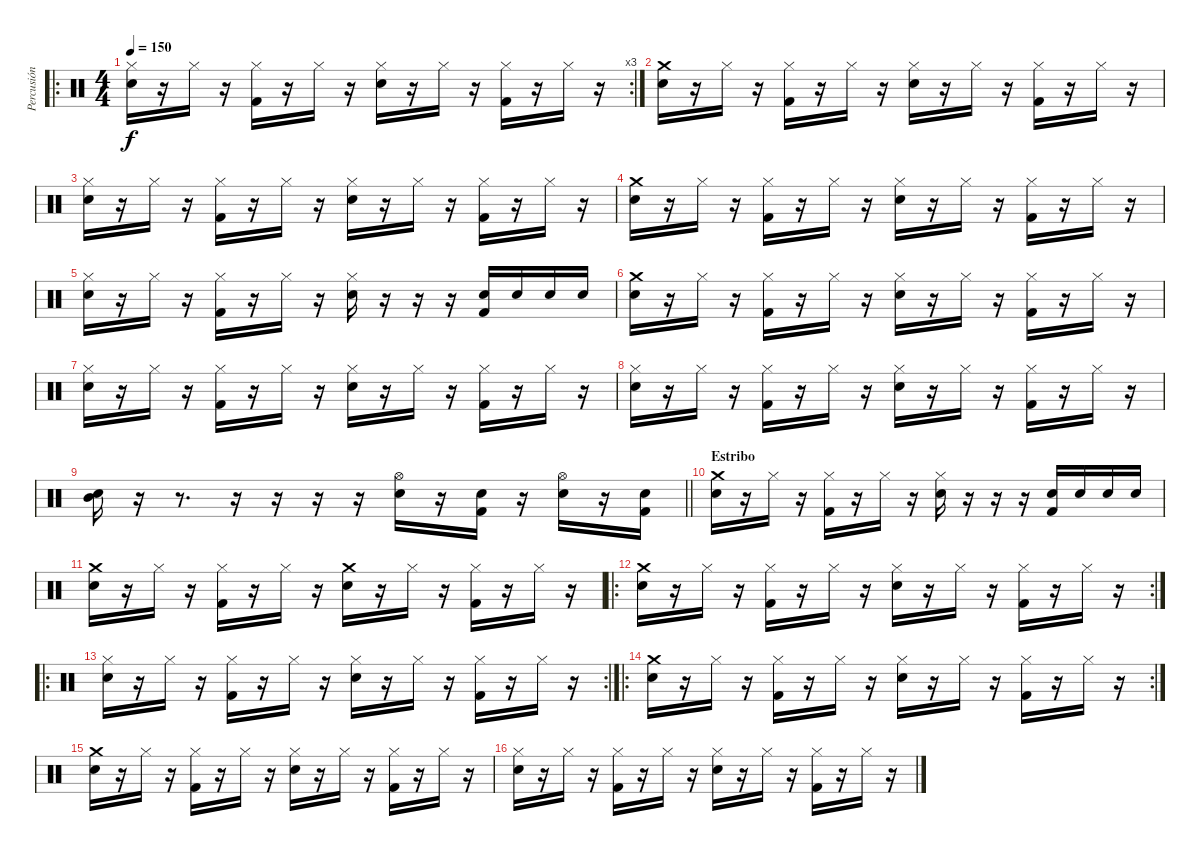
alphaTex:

\track ("Percusión" "Percusión") {instrument percussion}
\staff {score}
\articulation defaults
\ro
\rc 3
\ts (4 4)
\tempo 150
\clef neutral
\ks c
("Hi-Hat (closed)" "Snare (hit) 2").16{dy f} r.16 "Hi-Hat (closed)".16 r.16 ("Hi-Hat (closed)" "Kick (hit) 2").16 r.16 "Hi-Hat (closed)".16 r.16 ("Hi-Hat (closed)" "Snare (hit) 2").16 r.16 "Hi-Hat (closed)".16 r.16 ("Hi-Hat (closed)" "Kick (hit) 2").16 r.16 "Hi-Hat (closed)".16 r.16 |
("Crash medium (hit)" "Snare (hit) 2").16 r.16 "Hi-Hat (closed)".16 r.16 ("Hi-Hat (closed)" "Kick (hit) 2").16 r.16 "Hi-Hat (closed)".16 r.16 ("Hi-Hat (closed)" "Snare (hit) 2").16 r.16 "Hi-Hat (closed)".16 r.16 ("Hi-Hat (closed)" "Kick (hit) 2").16 r.16 "Hi-Hat (closed)".16 r.16 |
("Hi-Hat (closed)" "Snare (hit) 2").16 r.16 "Hi-Hat (closed)".16 r.16 ("Hi-Hat (closed)" "Kick (hit) 2").16 r.16 "Hi-Hat (closed)".16 r.16 ("Hi-Hat (closed)" "Snare (hit) 2").16 r.16 "Hi-Hat (closed)".16 r.16 ("Hi-Hat (closed)" "Kick (hit) 2").16 r.16 "Hi-Hat (closed)".16 r.16 |
("Crash medium (hit)" "Snare (hit) 2").16 r.16 "Hi-Hat (closed)".16 r.16 ("Hi-Hat (closed)" "Kick (hit) 2").16 r.16 "Hi-Hat (closed)".16 r.16 ("Hi-Hat (closed)" "Snare (hit) 2").16 r.16 "Hi-Hat (closed)".16 r.16 ("Hi-Hat (closed)" "Kick (hit) 2").16 r.16 "Hi-Hat (closed)".16 r.16 |
("Hi-Hat (closed)" "Snare (hit) 2").16 r.16 "Hi-Hat (closed)".16 r.16 ("Hi-Hat (closed)" "Kick (hit) 2").16 r.16 "Hi-Hat (closed)".16 r.16 ("Hi-Hat (closed)" "Snare (hit) 2").16 r.16 r.16 r.16 ("Snare (hit) 2" "Kick (hit) 2").16 "Snare (hit) 2".16 "Snare (hit) 2".16 "Snare (hit) 2".16 |
("Crash medium (hit)" "Snare (hit) 2").16 r.16 "Hi-Hat (closed)".16 r.16 ("Hi-Hat (closed)" "Kick (hit) 2").16 r.16 "Hi-Hat (closed)".16 r.16 ("Hi-Hat (closed)" "Snare (hit) 2").16 r.16 "Hi-Hat (closed)".16 r.16 ("Hi-Hat (closed)" "Kick (hit) 2").16 r.16 "Hi-Hat (closed)".16 r.16 |
("Hi-Hat (closed)" "Snare (hit) 2").16 r.16 "Hi-Hat (closed)".16 r.16 ("Hi-Hat (closed)" "Kick (hit) 2").16 r.16 "Hi-Hat (closed)".16 r.16 ("Hi-Hat (closed)" "Snare (hit) 2").16 r.16 "Hi-Hat (closed)".16 r.16 ("Hi-Hat (closed)" "Kick (hit) 2").16 r.16 "Hi-Hat (closed)".16 r.16 |
("Hi-Hat (closed)" "Snare (hit) 2").16 r.16 "Hi-Hat (closed)".16 r.16 ("Hi-Hat (closed)" "Kick (hit) 2").16 r.16 "Hi-Hat (closed)".16 r.16 ("Hi-Hat (closed)" "Snare (hit) 2").16 r.16 "Hi-Hat (closed)".16 r.16 ("Hi-Hat (closed)" "Kick (hit) 2").16 r.16 "Hi-Hat (closed)".16 r.16 |
\barLineRight lightlight
("Mid Tom (hit)" "Snare (hit) 2").16 r.16 r.8{d} r.16 r.16 r.16 r.16 ("Hi-Hat (open)" "Snare (hit) 2").16 r.16 ("Snare (hit) 2" "Kick (hit) 2").16 r.16 ("Hi-Hat (open)" "Snare (hit) 2").16 r.16 ("Snare (hit) 2" "Kick (hit) 2").16 |
\section ("" "Estribo")
("Crash medium (hit)" "Snare (hit) 2").16 r.16 "Hi-Hat (closed)".16 r.16 ("Hi-Hat (closed)" "Kick (hit) 2").16 r.16 "Hi-Hat (closed)".16 r.16 ("Hi-Hat (closed)" "Snare (hit) 2").16 r.16 r.16 r.16 ("Snare (hit) 2" "Kick (hit) 2").16 "Snare (hit) 2".16 "Snare (hit) 2".16 "Snare (hit) 2".16 |
("Crash medium (hit)" "Snare (hit) 2").16 r.16 "Hi-Hat (closed)".16 r.16 ("Hi-Hat (closed)" "Kick (hit) 2").16 r.16 "Hi-Hat (closed)".16 r.16 ("Crash medium (hit)" "Snare (hit) 2").16 r.16 "Hi-Hat (closed)".16 r.16 ("Hi-Hat (closed)" "Kick (hit) 2").16 r.16 "Hi-Hat (closed)".16 r.16 |
\ro
\rc 2
("Crash medium (hit)" "Snare (hit) 2").16 r.16 "Hi-Hat (closed)".16 r.16 ("Hi-Hat (closed)" "Kick (hit) 2").16 r.16 "Hi-Hat (closed)".16 r.16 ("Hi-Hat (closed)" "Snare (hit) 2").16 r.16 "Hi-Hat (closed)".16 r.16 ("Hi-Hat (closed)" "Kick (hit) 2").16 r.16 "Hi-Hat (closed)".16 r.16 |
\ro
\rc 2
("Hi-Hat (closed)" "Snare (hit) 2").16 r.16 "Hi-Hat (closed)".16 r.16 ("Hi-Hat (closed)" "Kick (hit) 2").16 r.16 "Hi-Hat (closed)".16 r.16 ("Hi-Hat (closed)" "Snare (hit) 2").16 r.16 "Hi-Hat (closed)".16 r.16 ("Hi-Hat (closed)" "Kick (hit) 2").16 r.16 "Hi-Hat (closed)".16 r.16 |
\ro
\rc 2
("Crash medium (hit)" "Snare (hit) 2").16 r.16 "Hi-Hat (closed)".16 r.16 ("Hi-Hat (closed)" "Kick (hit) 2").16 r.16 "Hi-Hat (closed)".16 r.16 ("Hi-Hat (closed)" "Snare (hit) 2").16 r.16 "Hi-Hat (closed)".16 r.16 ("Hi-Hat (closed)" "Kick (hit) 2").16 r.16 "Hi-Hat (closed)".16 r.16 |
("Crash medium (hit)" "Snare (hit) 2").16 r.16 "Hi-Hat (closed)".16 r.16 ("Hi-Hat (closed)" "Kick (hit) 2").16 r.16 "Hi-Hat (closed)".16 r.16 ("Hi-Hat (closed)" "Snare (hit) 2").16 r.16 "Hi-Hat (closed)".16 r.16 ("Hi-Hat (closed)" "Kick (hit) 2").16 r.16 "Hi-Hat (closed)".16 r.16 |
("Hi-Hat (closed)" "Snare (hit) 2").16 r.16 "Hi-Hat (closed)".16 r.16 ("Hi-Hat (closed)" "Kick (hit) 2").16 r.16 "Hi-Hat (closed)".16 r.16 ("Hi-Hat (closed)" "Snare (hit) 2").16 r.16 "Hi-Hat (closed)".16 r.16 ("Hi-Hat (closed)" "Kick (hit) 2").16 r.16 "Hi-Hat (closed)".16 r.16
